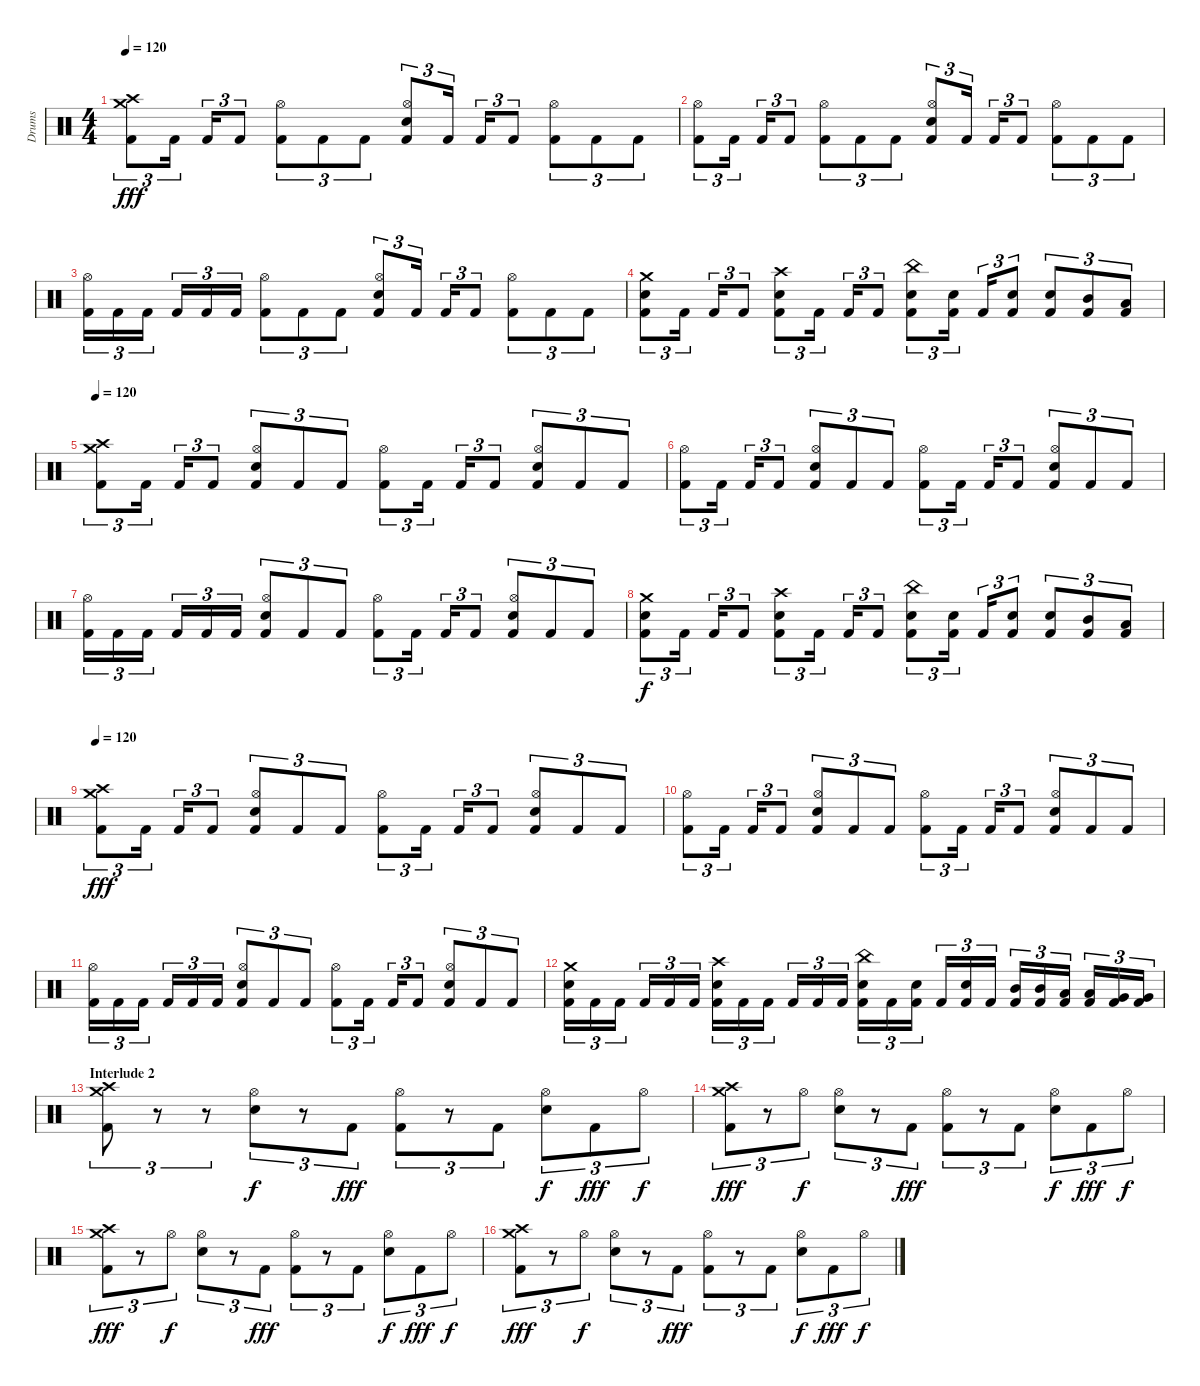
\track ("Drums" "Drums") {instrument percussion}
\staff {score}
\articulation defaults
\ts (4 4)
\tempo 120
\clef neutral
\ks c
("Crash medium (hit)" "Crash high (hit)" "Kick (hit) 2").8{tu (3 2) dy fff} "Kick (hit) 2".16{tu (3 2)} "Kick (hit) 2".16{tu (3 2)} "Kick (hit) 2".8{tu (3 2)} ("Hi-Hat (open)" "Kick (hit) 2").8{tu (3 2)} "Kick (hit) 2".8{tu (3 2)} "Kick (hit) 2".8{tu (3 2)} ("Hi-Hat (open)" "Snare (hit) 2" "Kick (hit) 2").8{tu (3 2)} "Kick (hit) 2".16{tu (3 2)} "Kick (hit) 2".16{tu (3 2)} "Kick (hit) 2".8{tu (3 2)} ("Hi-Hat (open)" "Kick (hit) 2").8{tu (3 2)} "Kick (hit) 2".8{tu (3 2)} "Kick (hit) 2".8{tu (3 2)} |
("Hi-Hat (open)" "Kick (hit) 2").8{tu (3 2)} "Kick (hit) 2".16{tu (3 2)} "Kick (hit) 2".16{tu (3 2)} "Kick (hit) 2".8{tu (3 2)} ("Hi-Hat (open)" "Kick (hit) 2").8{tu (3 2)} "Kick (hit) 2".8{tu (3 2)} "Kick (hit) 2".8{tu (3 2)} ("Hi-Hat (open)" "Snare (hit) 2" "Kick (hit) 2").8{tu (3 2)} "Kick (hit) 2".16{tu (3 2)} "Kick (hit) 2".16{tu (3 2)} "Kick (hit) 2".8{tu (3 2)} ("Hi-Hat (open)" "Kick (hit) 2").8{tu (3 2)} "Kick (hit) 2".8{tu (3 2)} "Kick (hit) 2".8{tu (3 2)} |
("Hi-Hat (open)" "Kick (hit) 2").16{tu (3 2)} "Kick (hit) 2".16{tu (3 2)} "Kick (hit) 2".16{tu (3 2)} "Kick (hit) 2".16{tu (3 2)} "Kick (hit) 2".16{tu (3 2)} "Kick (hit) 2".16{tu (3 2)} ("Hi-Hat (open)" "Kick (hit) 2").8{tu (3 2)} "Kick (hit) 2".8{tu (3 2)} "Kick (hit) 2".8{tu (3 2)} ("Hi-Hat (open)" "Snare (hit) 2" "Kick (hit) 2").8{tu (3 2)} "Kick (hit) 2".16{tu (3 2)} "Kick (hit) 2".16{tu (3 2)} "Kick (hit) 2".8{tu (3 2)} ("Hi-Hat (open)" "Kick (hit) 2").8{tu (3 2)} "Kick (hit) 2".8{tu (3 2)} "Kick (hit) 2".8{tu (3 2)} |
("Crash medium (hit)" "Snare (hit) 2" "Kick (hit) 2").8{tu (3 2)} "Kick (hit) 2".16{tu (3 2)} "Kick (hit) 2".16{tu (3 2)} "Kick (hit) 2".8{tu (3 2)} ("Crash high (hit)" "Snare (hit) 2" "Kick (hit) 2").8{tu (3 2)} "Kick (hit) 2".16{tu (3 2)} "Kick (hit) 2".16{tu (3 2)} "Kick (hit) 2".8{tu (3 2)} ("China (hit)" "Snare (hit) 2" "Kick (hit) 2").8{tu (3 2)} ("Snare (hit) 2" "Kick (hit) 2").16{tu (3 2)} "Kick (hit) 2".16{tu (3 2)} ("Snare (hit) 2" "Kick (hit) 2").8{tu (3 2)} ("Snare (hit) 2" "Kick (hit) 2").8{tu (3 2)} ("Mid Tom (hit)" "Kick (hit) 2").8{tu (3 2)} ("Low Tom (hit)" "Kick (hit) 2").8{tu (3 2)} |
\tempo 120
("Crash medium (hit)" "Crash high (hit)" "Kick (hit) 2").8{tu (3 2)} "Kick (hit) 2".16{tu (3 2)} "Kick (hit) 2".16{tu (3 2)} "Kick (hit) 2".8{tu (3 2)} ("Hi-Hat (open)" "Snare (hit) 2" "Kick (hit) 2").8{tu (3 2)} "Kick (hit) 2".8{tu (3 2)} "Kick (hit) 2".8{tu (3 2)} ("Hi-Hat (open)" "Kick (hit) 2").8{tu (3 2)} "Kick (hit) 2".16{tu (3 2)} "Kick (hit) 2".16{tu (3 2)} "Kick (hit) 2".8{tu (3 2)} ("Hi-Hat (open)" "Snare (hit) 2" "Kick (hit) 2").8{tu (3 2)} "Kick (hit) 2".8{tu (3 2)} "Kick (hit) 2".8{tu (3 2)} |
("Hi-Hat (open)" "Kick (hit) 2").8{tu (3 2)} "Kick (hit) 2".16{tu (3 2)} "Kick (hit) 2".16{tu (3 2)} "Kick (hit) 2".8{tu (3 2)} ("Hi-Hat (open)" "Snare (hit) 2" "Kick (hit) 2").8{tu (3 2)} "Kick (hit) 2".8{tu (3 2)} "Kick (hit) 2".8{tu (3 2)} ("Hi-Hat (open)" "Kick (hit) 2").8{tu (3 2)} "Kick (hit) 2".16{tu (3 2)} "Kick (hit) 2".16{tu (3 2)} "Kick (hit) 2".8{tu (3 2)} ("Hi-Hat (open)" "Snare (hit) 2" "Kick (hit) 2").8{tu (3 2)} "Kick (hit) 2".8{tu (3 2)} "Kick (hit) 2".8{tu (3 2)} |
("Hi-Hat (open)" "Kick (hit) 2").16{tu (3 2)} "Kick (hit) 2".16{tu (3 2)} "Kick (hit) 2".16{tu (3 2)} "Kick (hit) 2".16{tu (3 2)} "Kick (hit) 2".16{tu (3 2)} "Kick (hit) 2".16{tu (3 2)} ("Hi-Hat (open)" "Snare (hit) 2" "Kick (hit) 2").8{tu (3 2)} "Kick (hit) 2".8{tu (3 2)} "Kick (hit) 2".8{tu (3 2)} ("Hi-Hat (open)" "Kick (hit) 2").8{tu (3 2)} "Kick (hit) 2".16{tu (3 2)} "Kick (hit) 2".16{tu (3 2)} "Kick (hit) 2".8{tu (3 2)} ("Hi-Hat (open)" "Snare (hit) 2" "Kick (hit) 2").8{tu (3 2)} "Kick (hit) 2".8{tu (3 2)} "Kick (hit) 2".8{tu (3 2)} |
("Crash medium (hit)" "Snare (hit) 2" "Kick (hit) 2").8{tu (3 2) dy f} "Kick (hit) 2".16{tu (3 2)} "Kick (hit) 2".16{tu (3 2)} "Kick (hit) 2".8{tu (3 2)} ("Crash high (hit)" "Snare (hit) 2" "Kick (hit) 2").8{tu (3 2)} "Kick (hit) 2".16{tu (3 2)} "Kick (hit) 2".16{tu (3 2)} "Kick (hit) 2".8{tu (3 2)} ("China (hit)" "Snare (hit) 2" "Kick (hit) 2").8{tu (3 2)} ("Snare (hit) 2" "Kick (hit) 2").16{tu (3 2)} "Kick (hit) 2".16{tu (3 2)} ("Snare (hit) 2" "Kick (hit) 2").8{tu (3 2)} ("Snare (hit) 2" "Kick (hit) 2").8{tu (3 2)} ("Mid Tom (hit)" "Kick (hit) 2").8{tu (3 2)} ("Low Tom (hit)" "Kick (hit) 2").8{tu (3 2)} |
\tempo 120
("Crash medium (hit)" "Crash high (hit)" "Kick (hit) 2").8{tu (3 2) dy fff} "Kick (hit) 2".16{tu (3 2)} "Kick (hit) 2".16{tu (3 2)} "Kick (hit) 2".8{tu (3 2)} ("Hi-Hat (open)" "Snare (hit) 2" "Kick (hit) 2").8{tu (3 2)} "Kick (hit) 2".8{tu (3 2)} "Kick (hit) 2".8{tu (3 2)} ("Hi-Hat (open)" "Kick (hit) 2").8{tu (3 2)} "Kick (hit) 2".16{tu (3 2)} "Kick (hit) 2".16{tu (3 2)} "Kick (hit) 2".8{tu (3 2)} ("Hi-Hat (open)" "Snare (hit) 2" "Kick (hit) 2").8{tu (3 2)} "Kick (hit) 2".8{tu (3 2)} "Kick (hit) 2".8{tu (3 2)} |
("Hi-Hat (open)" "Kick (hit) 2").8{tu (3 2)} "Kick (hit) 2".16{tu (3 2)} "Kick (hit) 2".16{tu (3 2)} "Kick (hit) 2".8{tu (3 2)} ("Hi-Hat (open)" "Snare (hit) 2" "Kick (hit) 2").8{tu (3 2)} "Kick (hit) 2".8{tu (3 2)} "Kick (hit) 2".8{tu (3 2)} ("Hi-Hat (open)" "Kick (hit) 2").8{tu (3 2)} "Kick (hit) 2".16{tu (3 2)} "Kick (hit) 2".16{tu (3 2)} "Kick (hit) 2".8{tu (3 2)} ("Hi-Hat (open)" "Snare (hit) 2" "Kick (hit) 2").8{tu (3 2)} "Kick (hit) 2".8{tu (3 2)} "Kick (hit) 2".8{tu (3 2)} |
("Hi-Hat (open)" "Kick (hit) 2").16{tu (3 2)} "Kick (hit) 2".16{tu (3 2)} "Kick (hit) 2".16{tu (3 2)} "Kick (hit) 2".16{tu (3 2)} "Kick (hit) 2".16{tu (3 2)} "Kick (hit) 2".16{tu (3 2)} ("Hi-Hat (open)" "Snare (hit) 2" "Kick (hit) 2").8{tu (3 2)} "Kick (hit) 2".8{tu (3 2)} "Kick (hit) 2".8{tu (3 2)} ("Hi-Hat (open)" "Kick (hit) 2").8{tu (3 2)} "Kick (hit) 2".16{tu (3 2)} "Kick (hit) 2".16{tu (3 2)} "Kick (hit) 2".8{tu (3 2)} ("Hi-Hat (open)" "Snare (hit) 2" "Kick (hit) 2").8{tu (3 2)} "Kick (hit) 2".8{tu (3 2)} "Kick (hit) 2".8{tu (3 2)} |
("Crash medium (hit)" "Snare (hit) 2" "Kick (hit) 2").16{tu (3 2)} "Kick (hit) 2".16{tu (3 2)} "Kick (hit) 2".16{tu (3 2)} "Kick (hit) 2".16{tu (3 2)} "Kick (hit) 2".16{tu (3 2)} "Kick (hit) 2".16{tu (3 2)} ("Crash high (hit)" "Snare (hit) 2" "Kick (hit) 2").16{tu (3 2)} "Kick (hit) 2".16{tu (3 2)} "Kick (hit) 2".16{tu (3 2)} "Kick (hit) 2".16{tu (3 2)} "Kick (hit) 2".16{tu (3 2)} "Kick (hit) 2".16{tu (3 2)} ("China (hit)" "Snare (hit) 2" "Kick (hit) 2").16{tu (3 2)} "Kick (hit) 2".16{tu (3 2)} ("Snare (hit) 2" "Kick (hit) 2").16{tu (3 2)} "Kick (hit) 2".16{tu (3 2)} ("Snare (hit) 2" "Kick (hit) 2").16{tu (3 2)} "Kick (hit) 2".16{tu (3 2)} ("Mid Tom (hit)" "Kick (hit) 2").16{tu (3 2)} ("Mid Tom (hit)" "Kick (hit) 2").16{tu (3 2)} ("Low Tom (hit)" "Kick (hit) 2").16{tu (3 2)} ("Low Tom (hit)" "Kick (hit) 2").16{tu (3 2)} ("Very Low Tom (hit)" "Kick (hit) 2").16{tu (3 2)} ("Very Low Tom (hit)" "Kick (hit) 2").16{tu (3 2)} |
\section ("" "Interlude 2")
("Crash medium (hit)" "Crash high (hit)" "Kick (hit) 2").8{tu (3 2)} r.8{tu (3 2)} r.8{tu (3 2)} ("Hi-Hat (open)" "Snare (hit) 2").8{tu (3 2) dy f} r.8{tu (3 2)} "Kick (hit) 2".8{tu (3 2) dy fff} ("Hi-Hat (open)" "Kick (hit) 2").8{tu (3 2)} r.8{tu (3 2)} "Kick (hit) 2".8{tu (3 2)} ("Hi-Hat (open)" "Snare (hit) 2").8{tu (3 2) dy f} "Kick (hit) 2".8{tu (3 2) dy fff} "Hi-Hat (open)".8{tu (3 2) dy f} |
("Crash medium (hit)" "Crash high (hit)" "Kick (hit) 2").8{tu (3 2) dy fff} r.8{tu (3 2)} "Hi-Hat (open)".8{tu (3 2) dy f} ("Hi-Hat (open)" "Snare (hit) 2").8{tu (3 2)} r.8{tu (3 2)} "Kick (hit) 2".8{tu (3 2) dy fff} ("Hi-Hat (open)" "Kick (hit) 2").8{tu (3 2)} r.8{tu (3 2)} "Kick (hit) 2".8{tu (3 2)} ("Hi-Hat (open)" "Snare (hit) 2").8{tu (3 2) dy f} "Kick (hit) 2".8{tu (3 2) dy fff} "Hi-Hat (open)".8{tu (3 2) dy f} |
("Crash medium (hit)" "Crash high (hit)" "Kick (hit) 2").8{tu (3 2) dy fff} r.8{tu (3 2)} "Hi-Hat (open)".8{tu (3 2) dy f} ("Hi-Hat (open)" "Snare (hit) 2").8{tu (3 2)} r.8{tu (3 2)} "Kick (hit) 2".8{tu (3 2) dy fff} ("Hi-Hat (open)" "Kick (hit) 2").8{tu (3 2)} r.8{tu (3 2)} "Kick (hit) 2".8{tu (3 2)} ("Hi-Hat (open)" "Snare (hit) 2").8{tu (3 2) dy f} "Kick (hit) 2".8{tu (3 2) dy fff} "Hi-Hat (open)".8{tu (3 2) dy f} |
("Crash medium (hit)" "Crash high (hit)" "Kick (hit) 2").8{tu (3 2) dy fff} r.8{tu (3 2)} "Hi-Hat (open)".8{tu (3 2) dy f} ("Hi-Hat (open)" "Snare (hit) 2").8{tu (3 2)} r.8{tu (3 2)} "Kick (hit) 2".8{tu (3 2) dy fff} ("Hi-Hat (open)" "Kick (hit) 2").8{tu (3 2)} r.8{tu (3 2)} "Kick (hit) 2".8{tu (3 2)} ("Hi-Hat (open)" "Snare (hit) 2").8{tu (3 2) dy f} "Kick (hit) 2".8{tu (3 2) dy fff} "Hi-Hat (open)".8{tu (3 2) dy f}
